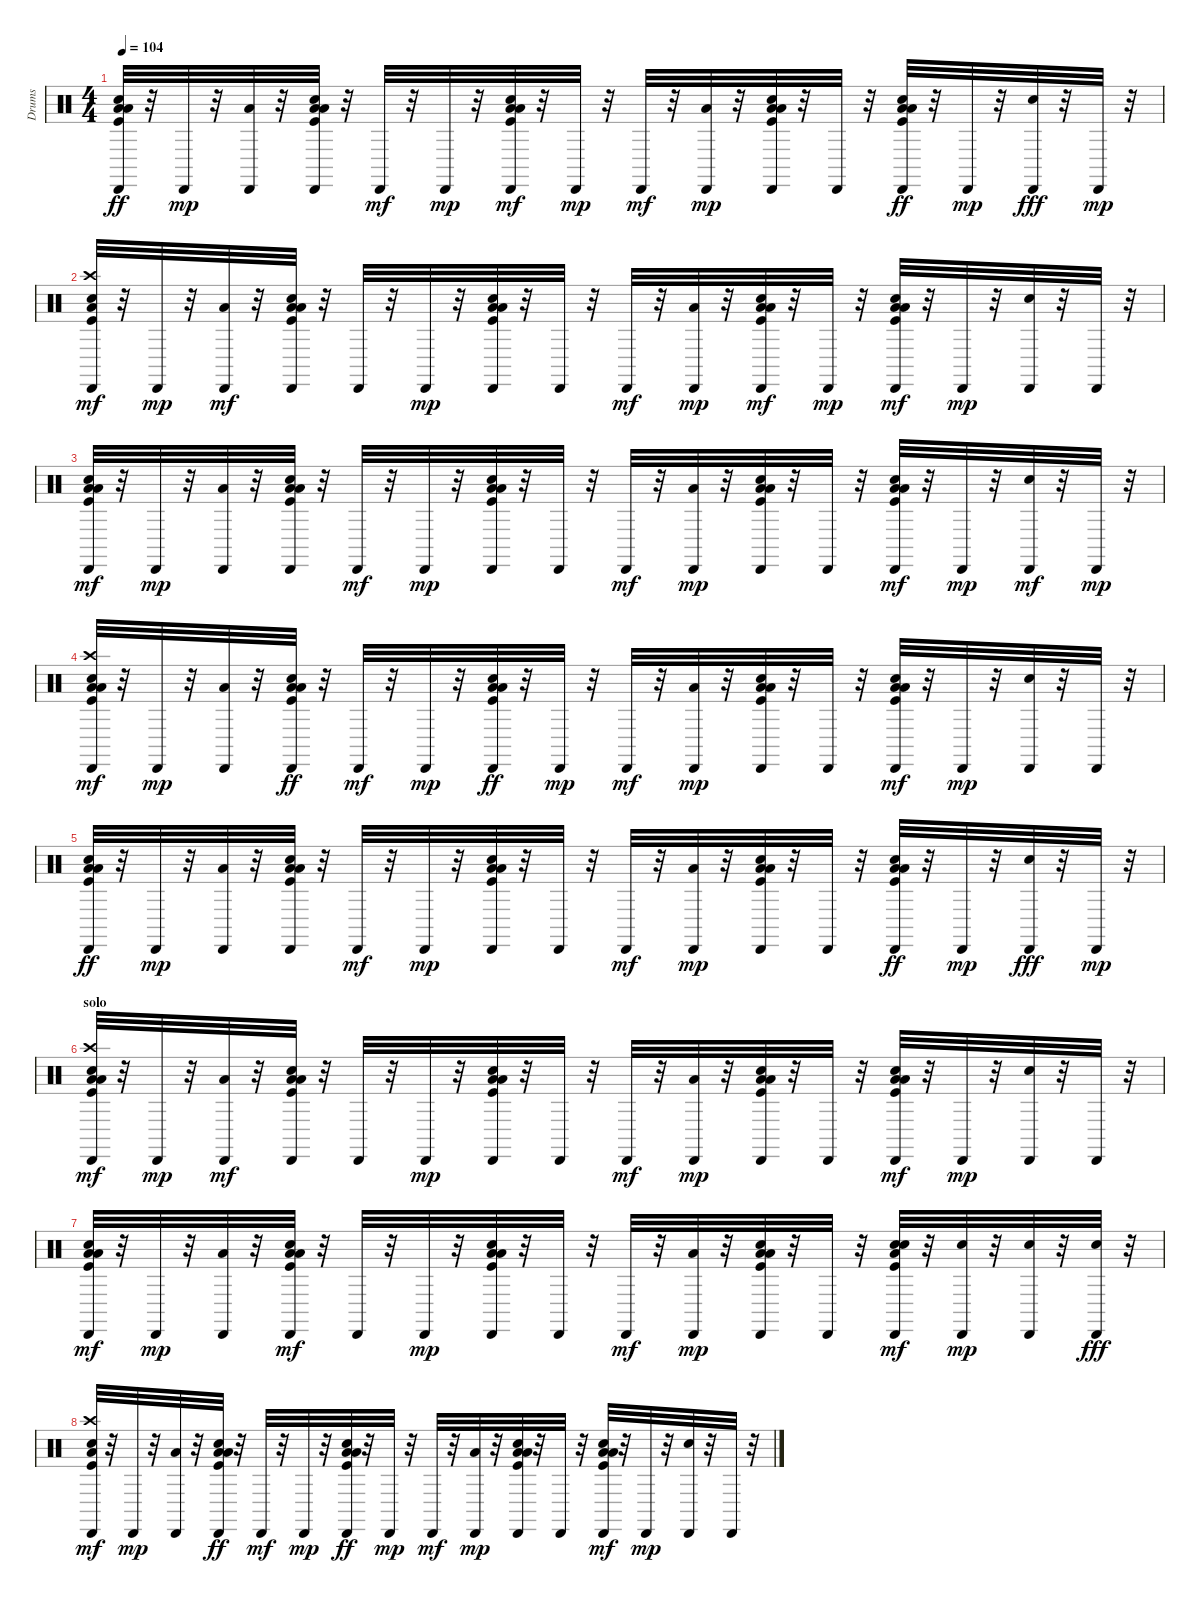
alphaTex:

\track ("Drums" "Drums") {instrument percussion}
\staff {score}
\articulation defaults
\ts (4 4)
\tempo 104
\clef neutral
\ks c
("Low Floor Tom (hit)" "Kick (hit)" "Hand Clap (hit)" "Cabasa (hit)" "Low Tom (hit)").32{dy ff} r.32 "Cabasa (hit)".32{dy mp} r.32 ("Low Tom (hit)" "Cabasa (hit)").32 r.32 ("Low Tom (hit)" "Kick (hit)" "Cabasa (hit)" "Low Floor Tom (hit)" "Hand Clap (hit)").32 r.32 "Cabasa (hit)".32{dy mf} r.32 "Cabasa (hit)".32{dy mp} r.32 ("Low Tom (hit)" "Low Floor Tom (hit)" "Kick (hit)" "Cabasa (hit)" "Hand Clap (hit)").32{dy mf} r.32 "Cabasa (hit)".32{dy mp} r.32 "Cabasa (hit)".32{dy mf} r.32 ("Low Tom (hit)" "Cabasa (hit)").32{dy mp} r.32 ("Low Tom (hit)" "Low Floor Tom (hit)" "Kick (hit)" "Hand Clap (hit)" "Cabasa (hit)").32 r.32 "Cabasa (hit)".32 r.32 ("Low Tom (hit)" "Kick (hit)" "Hand Clap (hit)" "Cabasa (hit)" "Low Floor Tom (hit)").32{dy ff} r.32 "Cabasa (hit)".32{dy mp} r.32 ("Cabasa (hit)" "Snare (hit) 2").32{dy fff} r.32 "Cabasa (hit)".32{dy mp} r.32 |
("Crash high (hit)" "Low Floor Tom (hit)" "Hand Clap (hit)" "Cabasa (hit)" "Kick (hit)").32{dy mf} r.32 "Cabasa (hit)".32{dy mp} r.32 ("Cabasa (hit)" "Low Tom (hit)").32{dy mf} r.32 ("Hand Clap (hit)" "Cabasa (hit)" "Low Tom (hit)" "Low Floor Tom (hit)" "Kick (hit)").32 r.32 "Cabasa (hit)".32 r.32 "Cabasa (hit)".32{dy mp} r.32 ("Low Tom (hit)" "Low Floor Tom (hit)" "Kick (hit)" "Hand Clap (hit)" "Cabasa (hit)").32 r.32 "Cabasa (hit)".32 r.32 "Cabasa (hit)".32{dy mf} r.32 ("Low Tom (hit)" "Cabasa (hit)").32{dy mp} r.32 ("Hand Clap (hit)" "Low Tom (hit)" "Low Floor Tom (hit)" "Kick (hit)" "Cabasa (hit)").32{dy mf} r.32 "Cabasa (hit)".32{dy mp} r.32 ("Kick (hit)" "Hand Clap (hit)" "Low Tom (hit)" "Low Floor Tom (hit)" "Cabasa (hit)").32{dy mf} r.32 "Cabasa (hit)".32{dy mp} r.32 ("Snare (hit) 2" "Cabasa (hit)").32 r.32 "Cabasa (hit)".32 r.32 |
("Low Floor Tom (hit)" "Kick (hit)" "Cabasa (hit)" "Low Tom (hit)" "Hand Clap (hit)").32{dy mf} r.32 "Cabasa (hit)".32{dy mp} r.32 ("Cabasa (hit)" "Low Tom (hit)").32 r.32 ("Kick (hit)" "Low Floor Tom (hit)" "Low Tom (hit)" "Hand Clap (hit)" "Cabasa (hit)").32 r.32 "Cabasa (hit)".32{dy mf} r.32 "Cabasa (hit)".32{dy mp} r.32 ("Low Floor Tom (hit)" "Low Tom (hit)" "Kick (hit)" "Hand Clap (hit)" "Cabasa (hit)").32 r.32 "Cabasa (hit)".32 r.32 "Cabasa (hit)".32{dy mf} r.32 ("Low Tom (hit)" "Cabasa (hit)").32{dy mp} r.32 ("Low Floor Tom (hit)" "Low Tom (hit)" "Kick (hit)" "Hand Clap (hit)" "Cabasa (hit)").32 r.32 "Cabasa (hit)".32 r.32 ("Low Floor Tom (hit)" "Low Tom (hit)" "Kick (hit)" "Hand Clap (hit)" "Cabasa (hit)").32{dy mf} r.32 "Cabasa (hit)".32{dy mp} r.32 ("Snare (hit) 2" "Cabasa (hit)").32{dy mf} r.32 "Cabasa (hit)".32{dy mp} r.32 |
("Crash high (hit)" "Cabasa (hit)" "Low Tom (hit)" "Low Floor Tom (hit)" "Kick (hit)" "Hand Clap (hit)").32{dy mf} r.32 "Cabasa (hit)".32{dy mp} r.32 ("Low Tom (hit)" "Cabasa (hit)").32 r.32 ("Low Tom (hit)" "Kick (hit)" "Cabasa (hit)" "Low Floor Tom (hit)" "Hand Clap (hit)").32{dy ff} r.32 "Cabasa (hit)".32{dy mf} r.32 "Cabasa (hit)".32{dy mp} r.32 ("Cabasa (hit)" "Low Tom (hit)" "Kick (hit)" "Low Floor Tom (hit)" "Hand Clap (hit)").32{dy ff} r.32 "Cabasa (hit)".32{dy mp} r.32 "Cabasa (hit)".32{dy mf} r.32 ("Cabasa (hit)" "Low Tom (hit)").32{dy mp} r.32 ("Hand Clap (hit)" "Low Tom (hit)" "Low Floor Tom (hit)" "Kick (hit)" "Cabasa (hit)").32 r.32 "Cabasa (hit)".32 r.32 ("Low Floor Tom (hit)" "Low Tom (hit)" "Kick (hit)" "Cabasa (hit)" "Hand Clap (hit)").32{dy mf} r.32 "Cabasa (hit)".32{dy mp} r.32 ("Snare (hit) 2" "Cabasa (hit)").32 r.32 "Cabasa (hit)".32 r.32 |
("Low Floor Tom (hit)" "Kick (hit)" "Hand Clap (hit)" "Cabasa (hit)" "Low Tom (hit)").32{dy ff} r.32 "Cabasa (hit)".32{dy mp} r.32 ("Low Tom (hit)" "Cabasa (hit)").32 r.32 ("Low Tom (hit)" "Kick (hit)" "Cabasa (hit)" "Low Floor Tom (hit)" "Hand Clap (hit)").32 r.32 "Cabasa (hit)".32{dy mf} r.32 "Cabasa (hit)".32{dy mp} r.32 ("Low Tom (hit)" "Low Floor Tom (hit)" "Kick (hit)" "Hand Clap (hit)" "Cabasa (hit)").32 r.32 "Cabasa (hit)".32 r.32 "Cabasa (hit)".32{dy mf} r.32 ("Low Tom (hit)" "Cabasa (hit)").32{dy mp} r.32 ("Hand Clap (hit)" "Low Tom (hit)" "Low Floor Tom (hit)" "Kick (hit)" "Cabasa (hit)").32 r.32 "Cabasa (hit)".32 r.32 ("Low Tom (hit)" "Kick (hit)" "Hand Clap (hit)" "Cabasa (hit)" "Low Floor Tom (hit)").32{dy ff} r.32 "Cabasa (hit)".32{dy mp} r.32 ("Cabasa (hit)" "Snare (hit) 2").32{dy fff} r.32 "Cabasa (hit)".32{dy mp} r.32 |
\section ("" "solo")
("Low Floor Tom (hit)" "Crash high (hit)" "Cabasa (hit)" "Low Tom (hit)" "Kick (hit)" "Hand Clap (hit)").32{dy mf} r.32 "Cabasa (hit)".32{dy mp} r.32 ("Cabasa (hit)" "Low Tom (hit)").32{dy mf} r.32 ("Cabasa (hit)" "Low Tom (hit)" "Low Floor Tom (hit)" "Kick (hit)" "Hand Clap (hit)").32 r.32 "Cabasa (hit)".32 r.32 "Cabasa (hit)".32{dy mp} r.32 ("Low Tom (hit)" "Low Floor Tom (hit)" "Kick (hit)" "Hand Clap (hit)" "Cabasa (hit)").32 r.32 "Cabasa (hit)".32 r.32 "Cabasa (hit)".32{dy mf} r.32 ("Cabasa (hit)" "Low Tom (hit)").32{dy mp} r.32 ("Low Tom (hit)" "Low Floor Tom (hit)" "Kick (hit)" "Hand Clap (hit)" "Cabasa (hit)").32 r.32 "Cabasa (hit)".32 r.32 ("Kick (hit)" "Low Tom (hit)" "Hand Clap (hit)" "Cabasa (hit)" "Low Floor Tom (hit)").32{dy mf} r.32 "Cabasa (hit)".32{dy mp} r.32 ("Snare (hit) 2" "Cabasa (hit)").32 r.32 "Cabasa (hit)".32 r.32 |
("Hand Clap (hit)" "Low Floor Tom (hit)" "Kick (hit)" "Cabasa (hit)" "Low Tom (hit)").32{dy mf} r.32 "Cabasa (hit)".32{dy mp} r.32 ("Cabasa (hit)" "Low Tom (hit)").32 r.32 ("Kick (hit)" "Cabasa (hit)" "Low Floor Tom (hit)" "Low Tom (hit)" "Hand Clap (hit)").32{dy mf} r.32 "Cabasa (hit)".32 r.32 "Cabasa (hit)".32{dy mp} r.32 ("Low Floor Tom (hit)" "Low Tom (hit)" "Kick (hit)" "Cabasa (hit)" "Hand Clap (hit)").32 r.32 "Cabasa (hit)".32 r.32 "Cabasa (hit)".32{dy mf} r.32 ("Low Tom (hit)" "Cabasa (hit)").32{dy mp} r.32 ("Low Floor Tom (hit)" "Hand Clap (hit)" "Low Tom (hit)" "Kick (hit)" "Cabasa (hit)").32 r.32 "Cabasa (hit)".32 r.32 ("Low Floor Tom (hit)" "Kick (hit)" "Hand Clap (hit)" "Snare (hit) 2" "Cabasa (hit)").32{dy mf} r.32 ("Snare (hit) 2" "Cabasa (hit)").32{dy mp} r.32 ("Snare (hit) 2" "Cabasa (hit)").32 r.32 ("Cabasa (hit)" "Snare (hit) 2").32{dy fff} r.32 |
("Crash high (hit)" "Hand Clap (hit)" "Cabasa (hit)" "Low Floor Tom (hit)" "Kick (hit)").32{dy mf} r.32 "Cabasa (hit)".32{dy mp} r.32 ("Low Tom (hit)" "Cabasa (hit)").32 r.32 ("Low Tom (hit)" "Kick (hit)" "Hand Clap (hit)" "Cabasa (hit)" "Low Floor Tom (hit)").32{dy ff} r.32 "Cabasa (hit)".32{dy mf} r.32 "Cabasa (hit)".32{dy mp} r.32 ("Low Tom (hit)" "Kick (hit)" "Hand Clap (hit)" "Cabasa (hit)" "Low Floor Tom (hit)").32{dy ff} r.32 "Cabasa (hit)".32{dy mp} r.32 "Cabasa (hit)".32{dy mf} r.32 ("Low Tom (hit)" "Cabasa (hit)").32{dy mp} r.32 ("Low Tom (hit)" "Low Floor Tom (hit)" "Kick (hit)" "Hand Clap (hit)" "Cabasa (hit)").32 r.32 "Cabasa (hit)".32 r.32 ("Low Floor Tom (hit)" "Low Tom (hit)" "Kick (hit)" "Cabasa (hit)" "Hand Clap (hit)").32{dy mf} r.32 "Cabasa (hit)".32{dy mp} r.32 ("Snare (hit) 2" "Cabasa (hit)").32 r.32 "Cabasa (hit)".32 r.32
